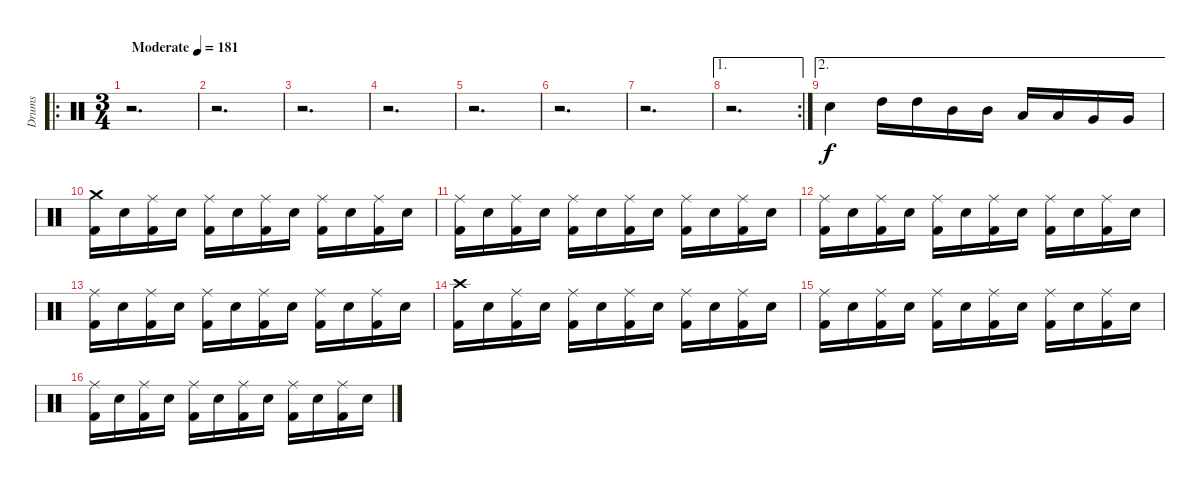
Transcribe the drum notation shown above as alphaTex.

\track ("Drums" "Drums") {instrument percussion}
\staff {score}
\articulation defaults
\ro
\ts (3 4)
\tempo (181 "Moderate")
\clef neutral
\ks c
r.2{d dy f} |
r.2{d} |
r.2{d} |
r.2{d} |
r.2{d} |
r.2{d} |
r.2{d} |
\ae 1
\rc 2
r.2{d} |
\ae 2 "Electric Snare (hit)".4 "High Tom (hit)".16 "High Tom (hit)".16 "Mid Tom (hit)".16 "Mid Tom (hit)".16 "Low Tom (hit)".16 "Low Tom (hit)".16 "Very Low Tom (hit)".16 "Very Low Tom (hit)".16
|
("Crash medium (hit)" "Kick (hit) 2").16 "Electric Snare (hit)".16 ("Ride (middle)" "Kick (hit) 2").16 "Electric Snare (hit)".16 ("Ride (middle)" "Kick (hit) 2").16 "Electric Snare (hit)".16 ("Ride (middle)" "Kick (hit) 2").16 "Electric Snare (hit)".16 ("Ride (middle)" "Kick (hit) 2").16 "Electric Snare (hit)".16 ("Ride (middle)" "Kick (hit) 2").16 "Electric Snare (hit)".16 |
("Ride (middle)" "Kick (hit) 2").16 "Electric Snare (hit)".16 ("Ride (middle)" "Kick (hit) 2").16 "Electric Snare (hit)".16 ("Ride (middle)" "Kick (hit) 2").16 "Electric Snare (hit)".16 ("Ride (middle)" "Kick (hit) 2").16 "Electric Snare (hit)".16 ("Ride (middle)" "Kick (hit) 2").16 "Electric Snare (hit)".16 ("Ride (middle)" "Kick (hit) 2").16 "Electric Snare (hit)".16 |
("Ride (middle)" "Kick (hit) 2").16 "Electric Snare (hit)".16 ("Ride (middle)" "Kick (hit) 2").16 "Electric Snare (hit)".16 ("Ride (middle)" "Kick (hit) 2").16 "Electric Snare (hit)".16 ("Ride (middle)" "Kick (hit) 2").16 "Electric Snare (hit)".16 ("Ride (middle)" "Kick (hit) 2").16 "Electric Snare (hit)".16 ("Ride (middle)" "Kick (hit) 2").16 "Electric Snare (hit)".16 |
("Ride (middle)" "Kick (hit) 2").16 "Electric Snare (hit)".16 ("Ride (middle)" "Kick (hit) 2").16 "Electric Snare (hit)".16 ("Ride (middle)" "Kick (hit) 2").16 "Electric Snare (hit)".16 ("Ride (middle)" "Kick (hit) 2").16 "Electric Snare (hit)".16 ("Ride (middle)" "Kick (hit) 2").16 "Electric Snare (hit)".16 ("Ride (middle)" "Kick (hit) 2").16 "Electric Snare (hit)".16 |
("Crash high (hit)" "Kick (hit) 2").16 "Electric Snare (hit)".16 ("Ride (middle)" "Kick (hit) 2").16 "Electric Snare (hit)".16 ("Ride (middle)" "Kick (hit) 2").16 "Electric Snare (hit)".16 ("Ride (middle)" "Kick (hit) 2").16 "Electric Snare (hit)".16 ("Ride (middle)" "Kick (hit) 2").16 "Electric Snare (hit)".16 ("Ride (middle)" "Kick (hit) 2").16 "Electric Snare (hit)".16 |
("Ride (middle)" "Kick (hit) 2").16 "Electric Snare (hit)".16 ("Ride (middle)" "Kick (hit) 2").16 "Electric Snare (hit)".16 ("Ride (middle)" "Kick (hit) 2").16 "Electric Snare (hit)".16 ("Ride (middle)" "Kick (hit) 2").16 "Electric Snare (hit)".16 ("Ride (middle)" "Kick (hit) 2").16 "Electric Snare (hit)".16 ("Ride (middle)" "Kick (hit) 2").16 "Electric Snare (hit)".16 |
("Ride (middle)" "Kick (hit) 2").16 "Electric Snare (hit)".16 ("Ride (middle)" "Kick (hit) 2").16 "Electric Snare (hit)".16 ("Ride (middle)" "Kick (hit) 2").16 "Electric Snare (hit)".16 ("Ride (middle)" "Kick (hit) 2").16 "Electric Snare (hit)".16 ("Ride (middle)" "Kick (hit) 2").16 "Electric Snare (hit)".16 ("Ride (middle)" "Kick (hit) 2").16 "Electric Snare (hit)".16
